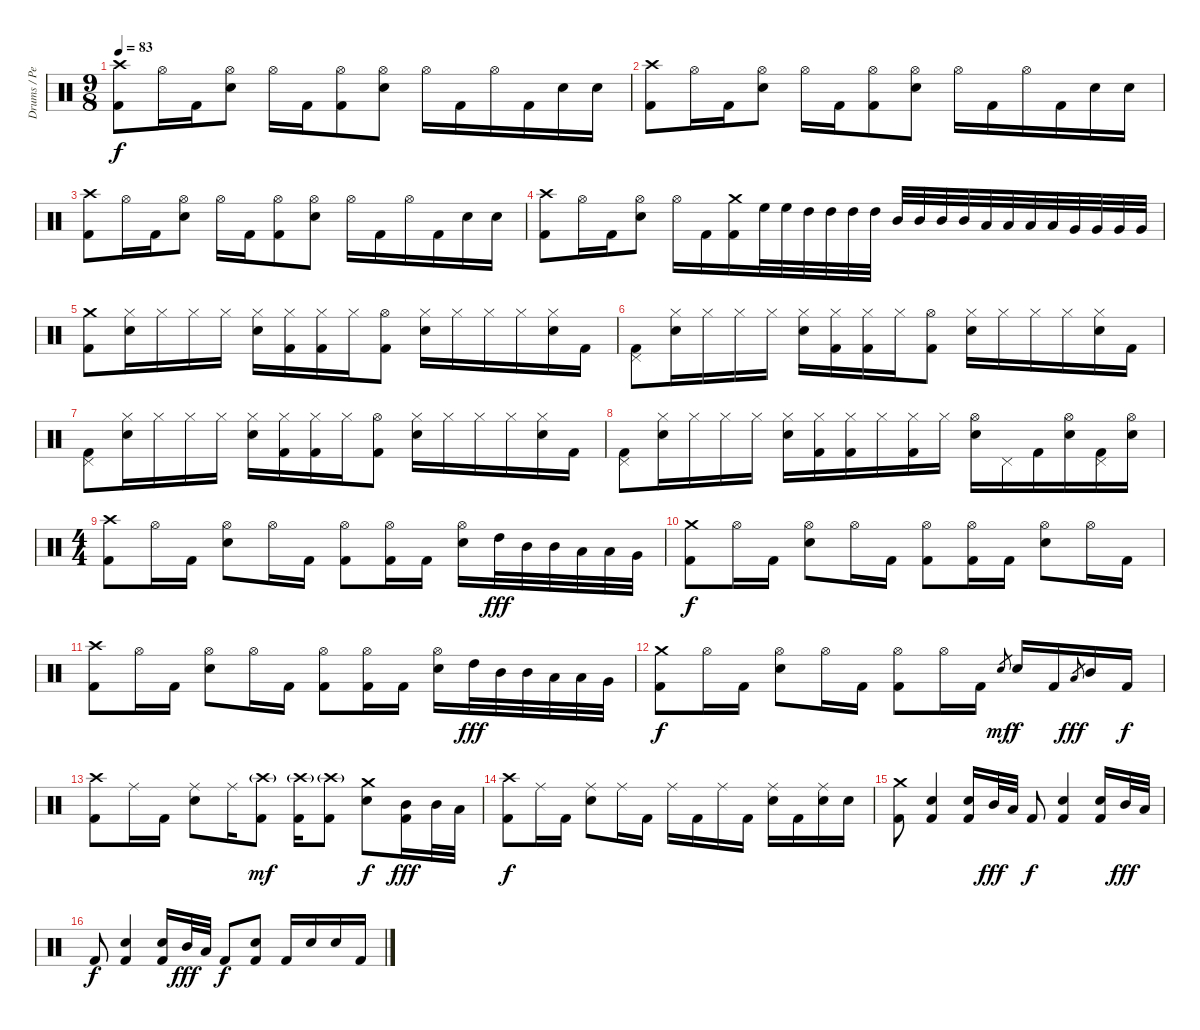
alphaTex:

\track ("Drums / Percussion" "Drums / Pe") {instrument percussion}
\staff {score}
\articulation defaults
\ts (9 8)
\section ("" "")
\tempo 83
\clef neutral
\ks c
("Crash high (hit)" "Kick (hit) 2").8{dy f} "Hi-Hat (open)".16 "Kick (hit) 2".16 ("Hi-Hat (open)" "Snare (hit) 2").8 "Hi-Hat (open)".16 "Kick (hit) 2".16 ("Hi-Hat (open)" "Kick (hit) 2").8 ("Hi-Hat (open)" "Snare (hit) 2").8 "Hi-Hat (open)".16 "Kick (hit) 2".16 "Hi-Hat (open)".16 "Kick (hit) 2".16 "Snare (hit) 2".16 "Snare (hit) 2".16 |
("Crash high (hit)" "Kick (hit) 2").8 "Hi-Hat (open)".16 "Kick (hit) 2".16 ("Hi-Hat (open)" "Snare (hit) 2").8 "Hi-Hat (open)".16 "Kick (hit) 2".16 ("Hi-Hat (open)" "Kick (hit) 2").8 ("Hi-Hat (open)" "Snare (hit) 2").8 "Hi-Hat (open)".16 "Kick (hit) 2".16 "Hi-Hat (open)".16 "Kick (hit) 2".16 "Snare (hit) 2".16 "Snare (hit) 2".16 |
("Crash high (hit)" "Kick (hit) 2").8 "Hi-Hat (open)".16 "Kick (hit) 2".16 ("Hi-Hat (open)" "Snare (hit) 2").8 "Hi-Hat (open)".16 "Kick (hit) 2".16 ("Hi-Hat (open)" "Kick (hit) 2").8 ("Hi-Hat (open)" "Snare (hit) 2").8 "Hi-Hat (open)".16 "Kick (hit) 2".16 "Hi-Hat (open)".16 "Kick (hit) 2".16 "Snare (hit) 2".16 "Snare (hit) 2".16 |
("Crash high (hit)" "Kick (hit) 2").8 "Hi-Hat (open)".16 "Kick (hit) 2".16 ("Hi-Hat (open)" "Snare (hit) 2").8 "Hi-Hat (open)".16 "Kick (hit) 2".16 ("Crash medium (hit)" "Kick (hit) 2").16 "High Floor Tom (hit)".32 "High Floor Tom (hit)".32 "High Tom (hit)".32 "High Tom (hit)".32 "High Tom (hit)".32 "High Tom (hit)".32 "Mid Tom (hit)".32 "Mid Tom (hit)".32 "Mid Tom (hit)".32 "Mid Tom (hit)".32 "Low Tom (hit)".32 "Low Tom (hit)".32 "Low Tom (hit)".32 "Low Tom (hit)".32 "Very Low Tom (hit)".32 "Very Low Tom (hit)".32 "Very Low Tom (hit)".32 "Very Low Tom (hit)".32 |
\section ("" "")
("Crash medium (hit)" "Kick (hit) 2").8 ("Hi-Hat (closed)" "Snare (hit) 2").16 "Hi-Hat (closed)".16 "Hi-Hat (closed)".16 "Hi-Hat (closed)".16 ("Hi-Hat (closed)" "Snare (hit) 2").16 ("Hi-Hat (closed)" "Kick (hit) 2").16 ("Hi-Hat (closed)" "Kick (hit) 2").16 "Hi-Hat (closed)".16 ("Hi-Hat (open)" "Kick (hit) 2").8 ("Hi-Hat (closed)" "Snare (hit) 2").16 "Hi-Hat (closed)".16 "Hi-Hat (closed)".16 "Hi-Hat (closed)".16 ("Hi-Hat (closed)" "Snare (hit) 2").16 "Kick (hit) 2".16 |
("Pedal Hi-Hat (hit)" "Kick (hit) 2").8 ("Hi-Hat (closed)" "Snare (hit) 2").16 "Hi-Hat (closed)".16 "Hi-Hat (closed)".16 "Hi-Hat (closed)".16 ("Hi-Hat (closed)" "Snare (hit) 2").16 ("Hi-Hat (closed)" "Kick (hit) 2").16 ("Hi-Hat (closed)" "Kick (hit) 2").16 "Hi-Hat (closed)".16 ("Hi-Hat (open)" "Kick (hit) 2").8 ("Hi-Hat (closed)" "Snare (hit) 2").16 "Hi-Hat (closed)".16 "Hi-Hat (closed)".16 "Hi-Hat (closed)".16 ("Hi-Hat (closed)" "Snare (hit) 2").16 "Kick (hit) 2".16 |
("Pedal Hi-Hat (hit)" "Kick (hit) 2").8 ("Hi-Hat (closed)" "Snare (hit) 2").16 "Hi-Hat (closed)".16 "Hi-Hat (closed)".16 "Hi-Hat (closed)".16 ("Hi-Hat (closed)" "Snare (hit) 2").16 ("Hi-Hat (closed)" "Kick (hit) 2").16 ("Hi-Hat (closed)" "Kick (hit) 2").16 "Hi-Hat (closed)".16 ("Hi-Hat (open)" "Kick (hit) 2").8 ("Hi-Hat (closed)" "Snare (hit) 2").16 "Hi-Hat (closed)".16 "Hi-Hat (closed)".16 "Hi-Hat (closed)".16 ("Hi-Hat (closed)" "Snare (hit) 2").16 "Kick (hit) 2".16 |
("Pedal Hi-Hat (hit)" "Kick (hit) 2").8 ("Hi-Hat (closed)" "Snare (hit) 2").16 "Hi-Hat (closed)".16 "Hi-Hat (closed)".16 "Hi-Hat (closed)".16 ("Hi-Hat (closed)" "Snare (hit) 2").16 ("Hi-Hat (closed)" "Kick (hit) 2").16 ("Hi-Hat (closed)" "Kick (hit) 2").16 "Hi-Hat (closed)".16 ("Hi-Hat (closed)" "Kick (hit) 2").16 "Hi-Hat (closed)".16 ("Hi-Hat (open)" "Snare (hit) 2").16 "Pedal Hi-Hat (hit)".16 "Kick (hit) 2".16 ("Hi-Hat (open)" "Snare (hit) 2").16 ("Pedal Hi-Hat (hit)" "Kick (hit) 2").16 ("Hi-Hat (open)" "Snare (hit) 2").16 |
\ts (4 4)
\section ("" "")
("Crash high (hit)" "Kick (hit) 2").8 "Hi-Hat (open)".16 "Kick (hit) 2".16 ("Hi-Hat (open)" "Snare (hit) 2").8 "Hi-Hat (open)".16 "Kick (hit) 2".16 ("Hi-Hat (open)" "Kick (hit) 2").8 ("Hi-Hat (open)" "Kick (hit) 2").16 "Kick (hit) 2".16 ("Hi-Hat (open)" "Snare (hit) 2").16 "High Tom (hit)".32{dy fff} "Mid Tom (hit)".32 "Mid Tom (hit)".32 "Low Tom (hit)".32 "Low Tom (hit)".32 "Very Low Tom (hit)".32 |
("Crash medium (hit)" "Kick (hit) 2").8{dy f} "Hi-Hat (open)".16 "Kick (hit) 2".16 ("Hi-Hat (open)" "Snare (hit) 2").8 "Hi-Hat (open)".16 "Kick (hit) 2".16 ("Hi-Hat (open)" "Kick (hit) 2").8 ("Hi-Hat (open)" "Kick (hit) 2").16 "Kick (hit) 2".16 ("Hi-Hat (open)" "Snare (hit) 2").8 "Hi-Hat (open)".16 "Kick (hit) 2".16 |
("Crash high (hit)" "Kick (hit) 2").8 "Hi-Hat (open)".16 "Kick (hit) 2".16 ("Hi-Hat (open)" "Snare (hit) 2").8 "Hi-Hat (open)".16 "Kick (hit) 2".16 ("Hi-Hat (open)" "Kick (hit) 2").8 ("Hi-Hat (open)" "Kick (hit) 2").16 "Kick (hit) 2".16 ("Hi-Hat (open)" "Snare (hit) 2").16 "High Tom (hit)".32{dy fff} "Mid Tom (hit)".32 "Mid Tom (hit)".32 "Low Tom (hit)".32 "Low Tom (hit)".32 "Very Low Tom (hit)".32 |
("Crash medium (hit)" "Kick (hit) 2").8{dy f} "Hi-Hat (open)".16 "Kick (hit) 2".16 ("Hi-Hat (open)" "Snare (hit) 2").8 "Hi-Hat (open)".16 "Kick (hit) 2".16 ("Hi-Hat (open)" "Kick (hit) 2").8 "Hi-Hat (open)".16 "Kick (hit) 2".16 "Snare (hit) 2".8{gr dy mf} "Snare (hit) 2".16{dy f} "Kick (hit) 2".16 "Low Tom (hit)".8{gr dy fff} "Mid Tom (hit)".16 "Kick (hit) 2".16{dy f} |
("Crash high (hit)" "Kick (hit) 2").8 "Ride (middle)".16 "Kick (hit) 2".16 ("Ride (middle)" "Snare (hit) 2").8 "Ride (middle)".16 ("Crash high (hit)"{g} "Kick (hit) 2").8{dy mf} ("Crash high (hit)"{g} "Kick (hit) 2").16 ("Crash high (hit)"{g} "Kick (hit) 2").8 ("Crash medium (hit)" "Snare (hit) 2").8{dy f} ("Mid Tom (hit)" "Kick (hit) 2").16{dy fff} "Mid Tom (hit)".32 "Low Tom (hit)".32 |
("Crash high (hit)" "Kick (hit) 2").8{dy f} "Ride (middle)".16 "Kick (hit) 2".16 ("Ride (middle)" "Snare (hit) 2").8 "Ride (middle)".16 "Kick (hit) 2".16 "Ride (middle)".16 "Kick (hit) 2".16 "Ride (middle)".16 "Kick (hit) 2".16 ("Ride (middle)" "Snare (hit) 2").16 "Kick (hit) 2".16 ("Ride (middle)" "Snare (hit) 2").16 "Snare (hit) 2".16 |
("Crash medium (hit)" "Kick (hit) 2").8 ("Snare (hit) 2" "Kick (hit) 2").4 ("Snare (hit) 2" "Kick (hit) 2").16 "Mid Tom (hit)".32{dy fff} "Low Tom (hit)".32 "Kick (hit) 2".8{dy f} ("Snare (hit) 2" "Kick (hit) 2").4 ("Snare (hit) 2" "Kick (hit) 2").16 "Mid Tom (hit)".32{dy fff} "Low Tom (hit)".32 |
"Kick (hit) 2".8{dy f} ("Snare (hit) 2" "Kick (hit) 2").4 ("Snare (hit) 2" "Kick (hit) 2").16 "Mid Tom (hit)".32{dy fff} "Low Tom (hit)".32 "Kick (hit) 2".8{dy f} ("Snare (hit) 2" "Kick (hit) 2").8 "Kick (hit) 2".16 "Snare (hit) 2".16 "Snare (hit) 2".16 "Kick (hit) 2".16
